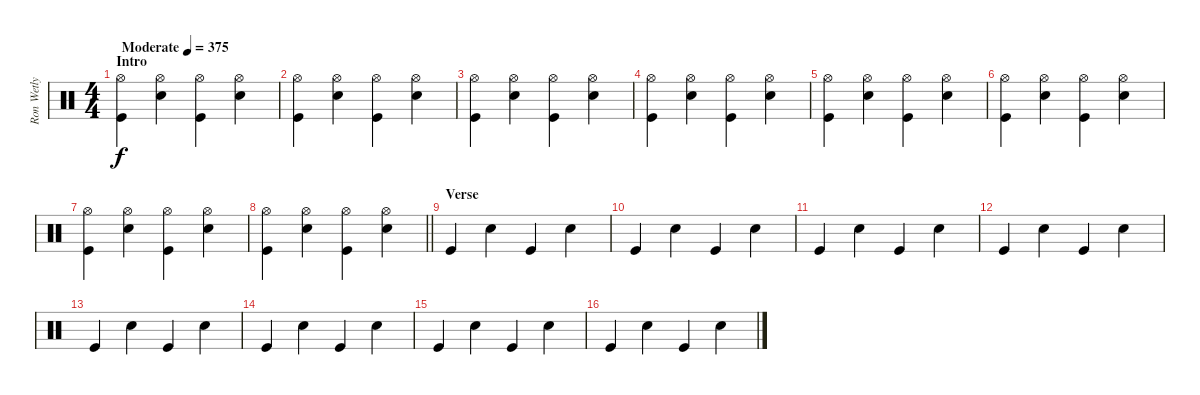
\track ("Ron Wetly (Drums)" "Ron Wetly ") {instrument percussion}
\staff {score}
\articulation defaults
\ts (4 4)
\section ("" "Intro")
\tempo (375 "Moderate")
\clef neutral
\ks c
("Hi-Hat (open)" "Kick (hit)").4{dy f} ("Hi-Hat (open)" "Snare (hit) 2").4 ("Hi-Hat (open)" "Kick (hit)").4 ("Hi-Hat (open)" "Snare (hit) 2").4 |
("Hi-Hat (open)" "Kick (hit)").4 ("Hi-Hat (open)" "Snare (hit) 2").4 ("Hi-Hat (open)" "Kick (hit)").4 ("Hi-Hat (open)" "Snare (hit) 2").4 |
("Hi-Hat (open)" "Kick (hit)").4 ("Hi-Hat (open)" "Snare (hit) 2").4 ("Hi-Hat (open)" "Kick (hit)").4 ("Hi-Hat (open)" "Snare (hit) 2").4 |
("Hi-Hat (open)" "Kick (hit)").4 ("Hi-Hat (open)" "Snare (hit) 2").4 ("Hi-Hat (open)" "Kick (hit)").4 ("Hi-Hat (open)" "Snare (hit) 2").4 |
("Hi-Hat (open)" "Kick (hit)").4 ("Hi-Hat (open)" "Snare (hit) 2").4 ("Hi-Hat (open)" "Kick (hit)").4 ("Hi-Hat (open)" "Snare (hit) 2").4 |
("Hi-Hat (open)" "Kick (hit)").4 ("Hi-Hat (open)" "Snare (hit) 2").4 ("Hi-Hat (open)" "Kick (hit)").4 ("Hi-Hat (open)" "Snare (hit) 2").4 |
("Hi-Hat (open)" "Kick (hit)").4 ("Hi-Hat (open)" "Snare (hit) 2").4 ("Hi-Hat (open)" "Kick (hit)").4 ("Hi-Hat (open)" "Snare (hit) 2").4 |
\barLineRight lightlight
("Hi-Hat (open)" "Kick (hit)").4 ("Hi-Hat (open)" "Snare (hit) 2").4 ("Hi-Hat (open)" "Kick (hit)").4 ("Hi-Hat (open)" "Snare (hit) 2").4 |
\section ("" "Verse")
"Kick (hit)".4 "Snare (hit) 2".4 "Kick (hit)".4 "Snare (hit) 2".4 |
"Kick (hit)".4 "Snare (hit) 2".4 "Kick (hit)".4 "Snare (hit) 2".4 |
"Kick (hit)".4 "Snare (hit) 2".4 "Kick (hit)".4 "Snare (hit) 2".4 |
"Kick (hit)".4 "Snare (hit) 2".4 "Kick (hit)".4 "Snare (hit) 2".4 |
"Kick (hit)".4 "Snare (hit) 2".4 "Kick (hit)".4 "Snare (hit) 2".4 |
"Kick (hit)".4 "Snare (hit) 2".4 "Kick (hit)".4 "Snare (hit) 2".4 |
"Kick (hit)".4 "Snare (hit) 2".4 "Kick (hit)".4 "Snare (hit) 2".4 |
"Kick (hit)".4 "Snare (hit) 2".4 "Kick (hit)".4 "Snare (hit) 2".4
